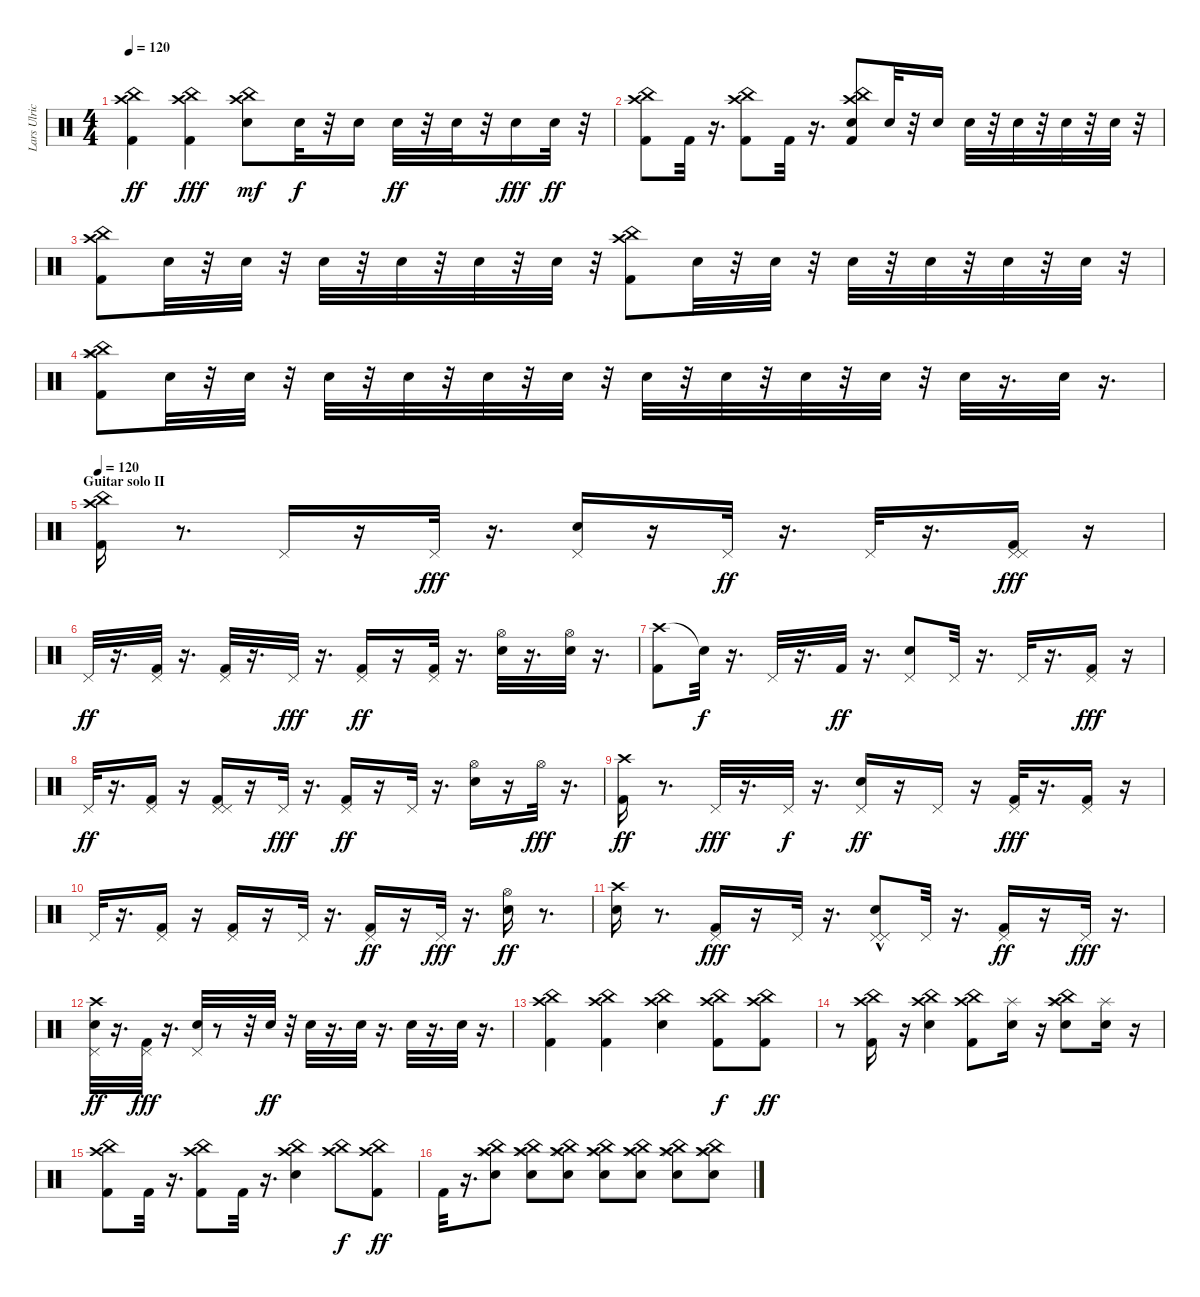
\track ("Lars Ulrich" "Lars Ulric") {instrument percussion}
\staff {score}
\articulation defaults
\ts (4 4)
\tempo 120
\clef neutral
\ks c
("Kick (hit) 2" "China (hit)" "Crash high (hit)").4{dy ff} ("China (hit)" "Kick (hit) 2" "Crash high (hit)").4{dy fff} ("Snare (hit) 2" "Crash high (hit)" "China (hit)").8{dy mf} "Snare (hit) 2".32{dy f} r.32 "Snare (hit) 2".16 "Snare (hit) 2".32{dy ff} r.32 "Snare (hit) 2".32 r.32 "Snare (hit) 2".16{dy fff} "Snare (hit) 2".32{dy ff} r.32 |
("Kick (hit) 2" "Crash high (hit)" "China (hit)").8 "Kick (hit) 2".32 r.16{d} ("Kick (hit) 2" "Crash high (hit)" "China (hit)").8 "Kick (hit) 2".32 r.16{d} ("Snare (hit) 2" "Kick (hit) 2" "Crash high (hit)" "China (hit)").8 "Snare (hit) 2".32 r.32 "Snare (hit) 2".16 "Snare (hit) 2".32 r.32 "Snare (hit) 2".32 r.32 "Snare (hit) 2".32 r.32 "Snare (hit) 2".32 r.32 |
("Kick (hit) 2" "China (hit)" "Crash high (hit)").8 "Snare (hit) 2".32 r.32 "Snare (hit) 2".32 r.32 "Snare (hit) 2".32 r.32 "Snare (hit) 2".32 r.32 "Snare (hit) 2".32 r.32 "Snare (hit) 2".32 r.32 ("Kick (hit) 2" "China (hit)" "Crash high (hit)").8 "Snare (hit) 2".32 r.32 "Snare (hit) 2".32 r.32 "Snare (hit) 2".32 r.32 "Snare (hit) 2".32 r.32 "Snare (hit) 2".32 r.32 "Snare (hit) 2".32 r.32 |
("Splash (hit)" "Kick (hit) 2" "Crash high (hit)" "China (hit)").8 "Snare (hit) 2".32 r.32 "Snare (hit) 2".32 r.32 "Snare (hit) 2".32 r.32 "Snare (hit) 2".32 r.32 "Snare (hit) 2".32 r.32 "Snare (hit) 2".32 r.32 "Snare (hit) 2".32 r.32 "Snare (hit) 2".32 r.32 "Snare (hit) 2".32 r.32 "Snare (hit) 2".32 r.32 "Snare (hit) 2".32 r.16{d} "Snare (hit) 2".32 r.16{d} |
\section ("" "Guitar solo II")
\tempo 120
("China (hit)" "Crash high (hit)" "Kick (hit) 2").16 r.8{d} "Pedal Hi-Hat (hit)".16 r.16 "Pedal Hi-Hat (hit)".32{dy fff} r.16{d} ("Snare (hit) 2" "Pedal Hi-Hat (hit)").16 r.16 "Pedal Hi-Hat (hit)".32{dy ff} r.16{d} "Pedal Hi-Hat (hit)".32 r.16{d} ("Kick (hit) 2" "Pedal Hi-Hat (hit)" "Pedal Hi-Hat (hit)").16{dy fff} r.16 |
"Pedal Hi-Hat (hit)".32{dy ff} r.16{d} ("Pedal Hi-Hat (hit)" "Kick (hit) 2").32 r.16{d} ("Pedal Hi-Hat (hit)" "Kick (hit) 2").32 r.16{d} "Pedal Hi-Hat (hit)".32{dy fff} r.16{d} ("Kick (hit) 2" "Pedal Hi-Hat (hit)").16{dy ff} r.16 ("Kick (hit) 2" "Pedal Hi-Hat (hit)").32 r.16{d} ("Snare (hit) 2" "Hi-Hat (open)").32 r.16{d} ("Snare (hit) 2" "Hi-Hat (open)").32 r.16{d} |
("Crash high (hit)" "Kick (hit) 2").8 "Snare (hit)"{t}.32{dy f} r.16{d} "Pedal Hi-Hat (hit)".32 r.16{d} "Kick (hit) 2".32{dy ff} r.16{d} ("Pedal Hi-Hat (hit)" "Snare (hit) 2").8 "Pedal Hi-Hat (hit)".32 r.16{d} "Pedal Hi-Hat (hit)".32 r.16{d} ("Kick (hit) 2" "Pedal Hi-Hat (hit)").16{dy fff} r.16 |
"Pedal Hi-Hat (hit)".32{dy ff} r.16{d} ("Pedal Hi-Hat (hit)" "Kick (hit) 2").16 r.16 ("Pedal Hi-Hat (hit)" "Kick (hit) 2" "Pedal Hi-Hat (hit)").16 r.16 "Pedal Hi-Hat (hit)".32{dy fff} r.16{d} ("Pedal Hi-Hat (hit)" "Kick (hit) 2").16{dy ff} r.16 "Pedal Hi-Hat (hit)".32 r.16{d} ("Hi-Hat (open)" "Snare (hit) 2").16 r.16 "Hi-Hat (open)".32{dy fff} r.16{d} |
("Kick (hit) 2" "Crash high (hit)").16{dy ff} r.8{d} "Pedal Hi-Hat (hit)".32{dy fff} r.16{d} "Pedal Hi-Hat (hit)".32{dy f} r.16{d} ("Snare (hit) 2" "Pedal Hi-Hat (hit)").16{dy ff} r.16 "Pedal Hi-Hat (hit)".16 r.16 ("Kick (hit) 2" "Pedal Hi-Hat (hit)").32{dy fff} r.16{d} ("Kick (hit) 2" "Pedal Hi-Hat (hit)").16 r.16 |
"Pedal Hi-Hat (hit)".32 r.16{d} ("Kick (hit) 2" "Pedal Hi-Hat (hit)").16 r.16 ("Kick (hit) 2" "Pedal Hi-Hat (hit)").16 r.16 "Pedal Hi-Hat (hit)".32 r.16{d} ("Kick (hit) 2" "Pedal Hi-Hat (hit)").16{dy ff} r.16 "Pedal Hi-Hat (hit)".32{dy fff} r.16{d} ("Hi-Hat (open)" "Snare (hit) 2").16{dy ff} r.8{d} |
("Snare (hit) 2" "Crash high (hit)").16 r.8{d} ("Kick (hit) 2" "Pedal Hi-Hat (hit)").16{dy fff} r.16 "Pedal Hi-Hat (hit)".32 r.16{d} ("Pedal Hi-Hat (hit)" "Snare (hit) 2"{hac} "Pedal Hi-Hat (hit)").8 "Pedal Hi-Hat (hit)".32 r.16{d} ("Kick (hit) 2" "Pedal Hi-Hat (hit)").16{dy ff} r.16 "Pedal Hi-Hat (hit)".32{dy fff} r.16{d} |
("Snare (hit) 2" "Crash high (hit)" "Pedal Hi-Hat (hit)").32{dy ff} r.16{d} ("Kick (hit) 2" "Pedal Hi-Hat (hit)").32{dy fff} r.16{d} ("Snare (hit) 2" "Pedal Hi-Hat (hit)").32 r.8 r.32 "Snare (hit) 2".32{dy ff} r.32 "Snare (hit) 2".32 r.16{d} "Snare (hit) 2".32 r.16{d} "Snare (hit) 2".32 r.16{d} "Snare (hit) 2".32 r.16{d} |
("Kick (hit) 2" "China (hit)" "Crash high (hit)").4 ("Kick (hit) 2" "China (hit)" "Crash high (hit)").4 ("Snare (hit) 2" "Crash high (hit)" "China (hit)").4 ("Kick (hit) 2" "China (hit)" "Crash high (hit)").8{dy f} ("Kick (hit) 2" "Crash high (hit)" "China (hit)").8{dy ff} |
r.8 ("Kick (hit) 2" "Crash high (hit)" "China (hit)").16 r.16 ("Snare (hit) 2" "China (hit)" "Crash high (hit)").4 ("Kick (hit) 2" "China (hit)" "Crash high (hit)").8 ("Splash (hit)" "Snare (hit) 2").16 r.16 ("Splash (hit)" "Snare (hit) 2" "China (hit)" "Crash high (hit)").8 ("Splash (hit)" "Snare (hit) 2").16 r.16 |
("Kick (hit) 2" "China (hit)" "Crash high (hit)").8 "Kick (hit) 2".32 r.16{d} ("Kick (hit) 2" "China (hit)" "Crash high (hit)").8 "Kick (hit) 2".32 r.16{d} ("Snare (hit) 2" "Crash high (hit)" "China (hit)").4 ("China (hit)" "Crash high (hit)").8{dy f} ("Kick (hit) 2" "China (hit)" "Crash high (hit)").8{dy ff} |
"Kick (hit) 2".32 r.16{d} ("Splash (hit)" "Snare (hit) 2" "China (hit)" "Crash high (hit)").8 ("Snare (hit) 2" "Splash (hit)" "China (hit)" "Crash high (hit)").8 ("Snare (hit) 2" "Splash (hit)" "China (hit)" "Crash high (hit)").8 ("Snare (hit) 2" "China (hit)" "Crash high (hit)" "Splash (hit)").8 ("Snare (hit) 2" "Splash (hit)" "China (hit)" "Crash high (hit)").8 ("Snare (hit) 2" "Splash (hit)" "China (hit)" "Crash high (hit)").8 ("Snare (hit) 2" "China (hit)" "Crash high (hit)" "Splash (hit)").8
